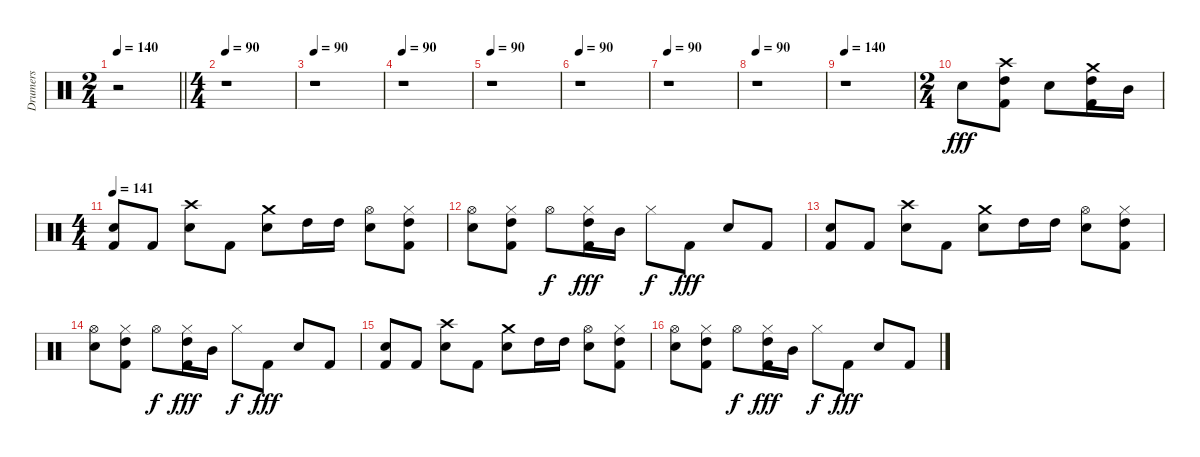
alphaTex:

\track ("Drumers" "Drumers") {instrument percussion}
\staff {score}
\articulation defaults
\ts (2 4)
\tempo 140
\tempo 90
\tempo 140
\clef neutral
\barLineRight lightlight
\ks c
r.2{dy fff} |
\ts (4 4)
\tempo 90
r.1 |
\tempo 90
r.1 |
\tempo 90
r.1 |
\tempo 90
r.1 |
\tempo 90
r.1 |
\tempo 90
r.1 |
\tempo 90
r.1 |
\tempo 140
r.1 |
\ts (2 4)
"Electric Snare (hit)".8 ("Crash high (hit)" "High Tom (hit)" "Kick (hit) 2").8 "Electric Snare (hit)".8 ("Crash medium (hit)" "High Tom (hit)" "Kick (hit) 2").16 "Mid Tom (hit)".16 |
\ts (4 4)
\tempo 141
("Electric Snare (hit)" "Kick (hit) 2").8 "Kick (hit) 2".8 ("Crash high (hit)" "Electric Snare (hit)").8 "Kick (hit) 2".8 ("Crash medium (hit)" "Electric Snare (hit)").8 "High Tom (hit)".16 "High Tom (hit)".16 ("Hi-Hat (open)" "Electric Snare (hit)").8 ("Hi-Hat (closed)" "High Tom (hit)" "Kick (hit) 2").8 |
("Hi-Hat (open)" "Electric Snare (hit)").8 ("Hi-Hat (closed)" "High Tom (hit)" "Kick (hit) 2").8 "Hi-Hat (open)".8{dy f} ("Hi-Hat (closed)" "High Tom (hit)" "Kick (hit) 2").16{dy fff} "Mid Tom (hit)".16 "Hi-Hat (closed)".8{dy f} "Kick (hit) 2".8{dy fff} "Electric Snare (hit)".8 "Kick (hit) 2".8 |
("Electric Snare (hit)" "Kick (hit) 2").8 "Kick (hit) 2".8 ("Crash high (hit)" "Electric Snare (hit)").8 "Kick (hit) 2".8 ("Crash medium (hit)" "Electric Snare (hit)").8 "High Tom (hit)".16 "High Tom (hit)".16 ("Hi-Hat (open)" "Electric Snare (hit)").8 ("Hi-Hat (closed)" "High Tom (hit)" "Kick (hit) 2").8 |
("Hi-Hat (open)" "Electric Snare (hit)").8 ("Hi-Hat (closed)" "High Tom (hit)" "Kick (hit) 2").8 "Hi-Hat (open)".8{dy f} ("Hi-Hat (closed)" "High Tom (hit)" "Kick (hit) 2").16{dy fff} "Mid Tom (hit)".16 "Hi-Hat (closed)".8{dy f} "Kick (hit) 2".8{dy fff} "Electric Snare (hit)".8 "Kick (hit) 2".8 |
("Electric Snare (hit)" "Kick (hit) 2").8 "Kick (hit) 2".8 ("Crash high (hit)" "Electric Snare (hit)").8 "Kick (hit) 2".8 ("Crash medium (hit)" "Electric Snare (hit)").8 "High Tom (hit)".16 "High Tom (hit)".16 ("Hi-Hat (open)" "Electric Snare (hit)").8 ("Hi-Hat (closed)" "High Tom (hit)" "Kick (hit) 2").8 |
("Hi-Hat (open)" "Electric Snare (hit)").8 ("Hi-Hat (closed)" "High Tom (hit)" "Kick (hit) 2").8 "Hi-Hat (open)".8{dy f} ("Hi-Hat (closed)" "High Tom (hit)" "Kick (hit) 2").16{dy fff} "Mid Tom (hit)".16 "Hi-Hat (closed)".8{dy f} "Kick (hit) 2".8{dy fff} "Electric Snare (hit)".8 "Kick (hit) 2".8
